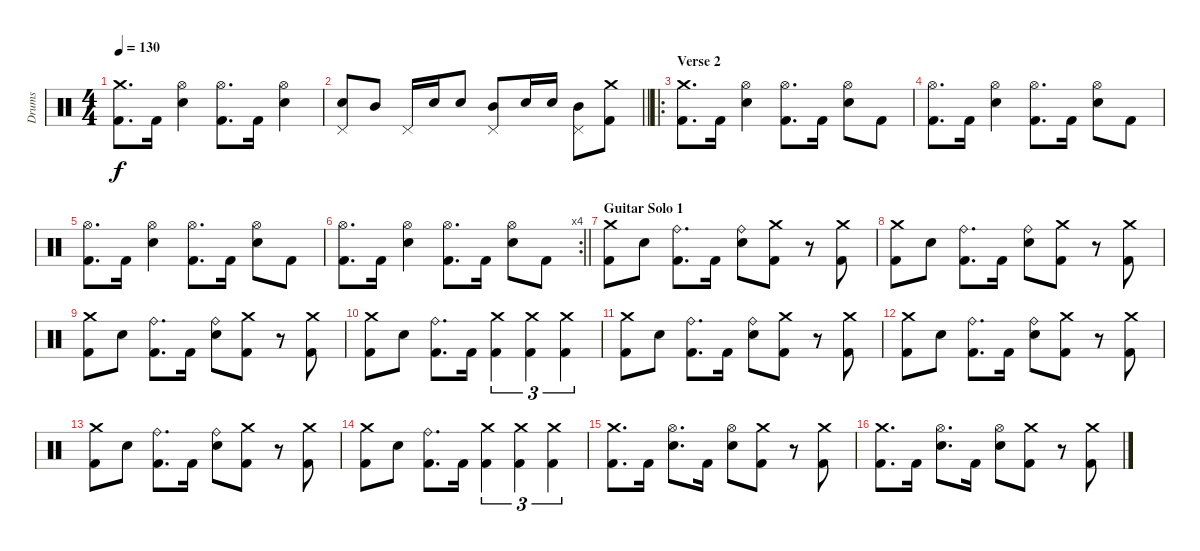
\track ("Drums" "Drums") {instrument percussion}
\staff {score}
\articulation defaults
\ts (4 4)
\tempo 130
\clef neutral
\ks c
("Crash medium (hit)" "Kick (hit) 2").8{d dy f} "Kick (hit) 2".16 ("Hi-Hat (open)" "Snare (hit) 2").4 ("Hi-Hat (open)" "Kick (hit) 2").8{d} "Kick (hit) 2".16 ("Hi-Hat (open)" "Snare (hit) 2").4 |
\barLineRight lightlight
("Pedal Hi-Hat (hit)" "Snare (hit) 2").8 "Mid Tom (hit)".8 "Pedal Hi-Hat (hit)".16 "Snare (hit) 2".16 "Snare (hit) 2".8 ("Pedal Hi-Hat (hit)" "Mid Tom (hit)").8 "Snare (hit) 2".16 "Snare (hit) 2".16 ("Pedal Hi-Hat (hit)" "Mid Tom (hit)").8 ("Crash medium (hit)" "Kick (hit) 2").8 |
\ro
\section ("" "Verse 2")
("Crash medium (hit)" "Kick (hit) 2").8{d} "Kick (hit) 2".16 ("Hi-Hat (open)" "Snare (hit) 2").4 ("Hi-Hat (open)" "Kick (hit) 2").8{d} "Kick (hit) 2".16 ("Hi-Hat (open)" "Snare (hit) 2").8 "Kick (hit) 2".8 |
("Hi-Hat (open)" "Kick (hit) 2").8{d} "Kick (hit) 2".16 ("Hi-Hat (open)" "Snare (hit) 2").4 ("Hi-Hat (open)" "Kick (hit) 2").8{d} "Kick (hit) 2".16 ("Hi-Hat (open)" "Snare (hit) 2").8 "Kick (hit) 2".8 |
("Hi-Hat (open)" "Kick (hit) 2").8{d} "Kick (hit) 2".16 ("Hi-Hat (open)" "Snare (hit) 2").4 ("Hi-Hat (open)" "Kick (hit) 2").8{d} "Kick (hit) 2".16 ("Hi-Hat (open)" "Snare (hit) 2").8 "Kick (hit) 2".8 |
\rc 4
\barLineRight lightlight
("Hi-Hat (open)" "Kick (hit) 2").8{d} "Kick (hit) 2".16 ("Hi-Hat (open)" "Snare (hit) 2").4 ("Hi-Hat (open)" "Kick (hit) 2").8{d} "Kick (hit) 2".16 ("Hi-Hat (open)" "Snare (hit) 2").8 "Kick (hit) 2".8 |
\section ("" "Guitar Solo 1")
("Crash medium (hit)" "Kick (hit) 2").8 "Snare (hit) 2".8 ("Ride (bell)" "Kick (hit) 2").8{d} "Kick (hit) 2".16 ("Ride (bell)" "Snare (hit) 2").8 ("Crash medium (hit)" "Kick (hit) 2").8 r.8 ("Crash medium (hit)" "Kick (hit) 2").8 |
("Crash medium (hit)" "Kick (hit) 2").8 "Snare (hit) 2".8 ("Ride (bell)" "Kick (hit) 2").8{d} "Kick (hit) 2".16 ("Ride (bell)" "Snare (hit) 2").8 ("Crash medium (hit)" "Kick (hit) 2").8 r.8 ("Crash medium (hit)" "Kick (hit) 2").8 |
("Crash medium (hit)" "Kick (hit) 2").8 "Snare (hit) 2".8 ("Ride (bell)" "Kick (hit) 2").8{d} "Kick (hit) 2".16 ("Ride (bell)" "Snare (hit) 2").8 ("Crash medium (hit)" "Kick (hit) 2").8 r.8 ("Crash medium (hit)" "Kick (hit) 2").8 |
("Crash medium (hit)" "Kick (hit) 2").8 "Snare (hit) 2".8 ("Ride (bell)" "Kick (hit) 2").8{d} "Kick (hit) 2".16 ("Crash medium (hit)" "Kick (hit) 2").4{tu (3 2)} ("Crash medium (hit)" "Kick (hit) 2").4{tu (3 2)} ("Crash medium (hit)" "Kick (hit) 2").4{tu (3 2)} |
("Crash medium (hit)" "Kick (hit) 2").8 "Snare (hit) 2".8 ("Ride (bell)" "Kick (hit) 2").8{d} "Kick (hit) 2".16 ("Ride (bell)" "Snare (hit) 2").8 ("Crash medium (hit)" "Kick (hit) 2").8 r.8 ("Crash medium (hit)" "Kick (hit) 2").8 |
("Crash medium (hit)" "Kick (hit) 2").8 "Snare (hit) 2".8 ("Ride (bell)" "Kick (hit) 2").8{d} "Kick (hit) 2".16 ("Ride (bell)" "Snare (hit) 2").8 ("Crash medium (hit)" "Kick (hit) 2").8 r.8 ("Crash medium (hit)" "Kick (hit) 2").8 |
("Crash medium (hit)" "Kick (hit) 2").8 "Snare (hit) 2".8 ("Ride (bell)" "Kick (hit) 2").8{d} "Kick (hit) 2".16 ("Ride (bell)" "Snare (hit) 2").8 ("Crash medium (hit)" "Kick (hit) 2").8 r.8 ("Crash medium (hit)" "Kick (hit) 2").8 |
("Crash medium (hit)" "Kick (hit) 2").8 "Snare (hit) 2".8 ("Ride (bell)" "Kick (hit) 2").8{d} "Kick (hit) 2".16 ("Crash medium (hit)" "Kick (hit) 2").4{tu (3 2)} ("Crash medium (hit)" "Kick (hit) 2").4{tu (3 2)} ("Crash medium (hit)" "Kick (hit) 2").4{tu (3 2)} |
("Crash medium (hit)" "Kick (hit) 2").8{d} "Kick (hit) 2".16 ("Hi-Hat (open)" "Snare (hit) 2").8{d} "Kick (hit) 2".16 ("Hi-Hat (open)" "Snare (hit) 2").8 ("Crash medium (hit)" "Kick (hit) 2").8 r.8 ("Crash medium (hit)" "Kick (hit) 2").8 |
("Crash medium (hit)" "Kick (hit) 2").8{d} "Kick (hit) 2".16 ("Hi-Hat (open)" "Snare (hit) 2").8{d} "Kick (hit) 2".16 ("Hi-Hat (open)" "Snare (hit) 2").8 ("Crash medium (hit)" "Kick (hit) 2").8 r.8 ("Crash medium (hit)" "Kick (hit) 2").8
